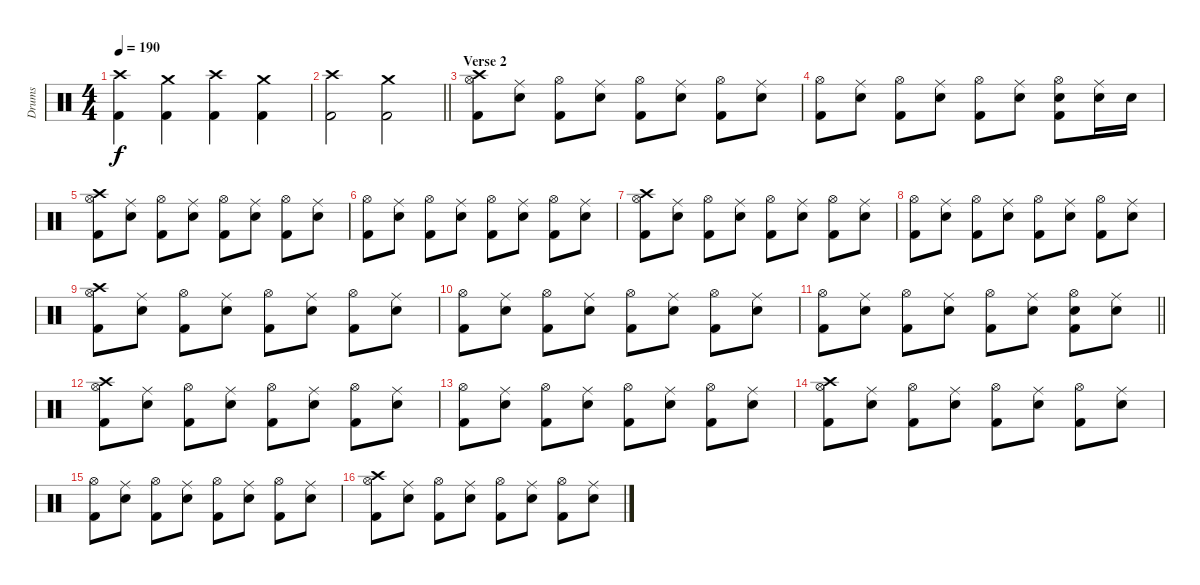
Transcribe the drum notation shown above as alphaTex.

\track ("Drums" "Drums") {instrument percussion}
\staff {score}
\articulation defaults
\ts (4 4)
\tempo 190
\clef neutral
\ks c
("Crash high (hit)" "Kick (hit) 2").4{dy f} ("Crash medium (hit)" "Kick (hit) 2").4 ("Crash high (hit)" "Kick (hit) 2").4 ("Crash medium (hit)" "Kick (hit) 2").4 |
\barLineRight lightlight
("Crash high (hit)" "Kick (hit) 2").2 ("Crash medium (hit)" "Kick (hit) 2").2 |
\section ("" "Verse 2")
("Crash high (hit)" "Hi-Hat (open)" "Kick (hit) 2").8 ("Ride (middle)" "Snare (hit) 2").8 ("Hi-Hat (open)" "Kick (hit) 2").8 ("Ride (middle)" "Snare (hit) 2").8 ("Hi-Hat (open)" "Kick (hit) 2").8 ("Ride (middle)" "Snare (hit) 2").8 ("Hi-Hat (open)" "Kick (hit) 2").8 ("Ride (middle)" "Snare (hit) 2").8 |
("Hi-Hat (open)" "Kick (hit) 2").8 ("Ride (middle)" "Snare (hit) 2").8 ("Hi-Hat (open)" "Kick (hit) 2").8 ("Ride (middle)" "Snare (hit) 2").8 ("Hi-Hat (open)" "Kick (hit) 2").8 ("Ride (middle)" "Snare (hit) 2").8 ("Hi-Hat (open)" "Snare (hit) 2" "Kick (hit) 2").8 ("Ride (middle)" "Snare (hit) 2").16 "Snare (hit) 2".16 |
("Crash high (hit)" "Hi-Hat (open)" "Kick (hit) 2").8 ("Ride (middle)" "Snare (hit) 2").8 ("Hi-Hat (open)" "Kick (hit) 2").8 ("Ride (middle)" "Snare (hit) 2").8 ("Hi-Hat (open)" "Kick (hit) 2").8 ("Ride (middle)" "Snare (hit) 2").8 ("Hi-Hat (open)" "Kick (hit) 2").8 ("Ride (middle)" "Snare (hit) 2").8 |
("Hi-Hat (open)" "Kick (hit) 2").8 ("Ride (middle)" "Snare (hit) 2").8 ("Hi-Hat (open)" "Kick (hit) 2").8 ("Ride (middle)" "Snare (hit) 2").8 ("Hi-Hat (open)" "Kick (hit) 2").8 ("Ride (middle)" "Snare (hit) 2").8 ("Hi-Hat (open)" "Kick (hit) 2").8 ("Ride (middle)" "Snare (hit) 2").8 |
("Crash high (hit)" "Hi-Hat (open)" "Kick (hit) 2").8 ("Ride (middle)" "Snare (hit) 2").8 ("Hi-Hat (open)" "Kick (hit) 2").8 ("Ride (middle)" "Snare (hit) 2").8 ("Hi-Hat (open)" "Kick (hit) 2").8 ("Ride (middle)" "Snare (hit) 2").8 ("Hi-Hat (open)" "Kick (hit) 2").8 ("Ride (middle)" "Snare (hit) 2").8 |
("Hi-Hat (open)" "Kick (hit) 2").8 ("Ride (middle)" "Snare (hit) 2").8 ("Hi-Hat (open)" "Kick (hit) 2").8 ("Ride (middle)" "Snare (hit) 2").8 ("Hi-Hat (open)" "Kick (hit) 2").8 ("Ride (middle)" "Snare (hit) 2").8 ("Hi-Hat (open)" "Kick (hit) 2").8 ("Ride (middle)" "Snare (hit) 2").8 |
("Crash high (hit)" "Hi-Hat (open)" "Kick (hit) 2").8 ("Ride (middle)" "Snare (hit) 2").8 ("Hi-Hat (open)" "Kick (hit) 2").8 ("Ride (middle)" "Snare (hit) 2").8 ("Hi-Hat (open)" "Kick (hit) 2").8 ("Ride (middle)" "Snare (hit) 2").8 ("Hi-Hat (open)" "Kick (hit) 2").8 ("Ride (middle)" "Snare (hit) 2").8 |
("Hi-Hat (open)" "Kick (hit) 2").8 ("Ride (middle)" "Snare (hit) 2").8 ("Hi-Hat (open)" "Kick (hit) 2").8 ("Ride (middle)" "Snare (hit) 2").8 ("Hi-Hat (open)" "Kick (hit) 2").8 ("Ride (middle)" "Snare (hit) 2").8 ("Hi-Hat (open)" "Kick (hit) 2").8 ("Ride (middle)" "Snare (hit) 2").8 |
\barLineRight lightlight
("Hi-Hat (open)" "Kick (hit) 2").8 ("Ride (middle)" "Snare (hit) 2").8 ("Hi-Hat (open)" "Kick (hit) 2").8 ("Ride (middle)" "Snare (hit) 2").8 ("Hi-Hat (open)" "Kick (hit) 2").8 ("Ride (middle)" "Snare (hit) 2").8 ("Hi-Hat (open)" "Snare (hit) 2" "Kick (hit) 2").8 ("Ride (middle)" "Snare (hit) 2").8 |
("Crash high (hit)" "Hi-Hat (open)" "Kick (hit) 2").8 ("Ride (middle)" "Snare (hit) 2").8 ("Hi-Hat (open)" "Kick (hit) 2").8 ("Ride (middle)" "Snare (hit) 2").8 ("Hi-Hat (open)" "Kick (hit) 2").8 ("Ride (middle)" "Snare (hit) 2").8 ("Hi-Hat (open)" "Kick (hit) 2").8 ("Ride (middle)" "Snare (hit) 2").8 |
("Hi-Hat (open)" "Kick (hit) 2").8 ("Ride (middle)" "Snare (hit) 2").8 ("Hi-Hat (open)" "Kick (hit) 2").8 ("Ride (middle)" "Snare (hit) 2").8 ("Hi-Hat (open)" "Kick (hit) 2").8 ("Ride (middle)" "Snare (hit) 2").8 ("Hi-Hat (open)" "Kick (hit) 2").8 ("Ride (middle)" "Snare (hit) 2").8 |
("Crash high (hit)" "Hi-Hat (open)" "Kick (hit) 2").8 ("Ride (middle)" "Snare (hit) 2").8 ("Hi-Hat (open)" "Kick (hit) 2").8 ("Ride (middle)" "Snare (hit) 2").8 ("Hi-Hat (open)" "Kick (hit) 2").8 ("Ride (middle)" "Snare (hit) 2").8 ("Hi-Hat (open)" "Kick (hit) 2").8 ("Ride (middle)" "Snare (hit) 2").8 |
("Hi-Hat (open)" "Kick (hit) 2").8 ("Ride (middle)" "Snare (hit) 2").8 ("Hi-Hat (open)" "Kick (hit) 2").8 ("Ride (middle)" "Snare (hit) 2").8 ("Hi-Hat (open)" "Kick (hit) 2").8 ("Ride (middle)" "Snare (hit) 2").8 ("Hi-Hat (open)" "Kick (hit) 2").8 ("Ride (middle)" "Snare (hit) 2").8 |
("Crash high (hit)" "Hi-Hat (open)" "Kick (hit) 2").8 ("Ride (middle)" "Snare (hit) 2").8 ("Hi-Hat (open)" "Kick (hit) 2").8 ("Ride (middle)" "Snare (hit) 2").8 ("Hi-Hat (open)" "Kick (hit) 2").8 ("Ride (middle)" "Snare (hit) 2").8 ("Hi-Hat (open)" "Kick (hit) 2").8 ("Ride (middle)" "Snare (hit) 2").8
